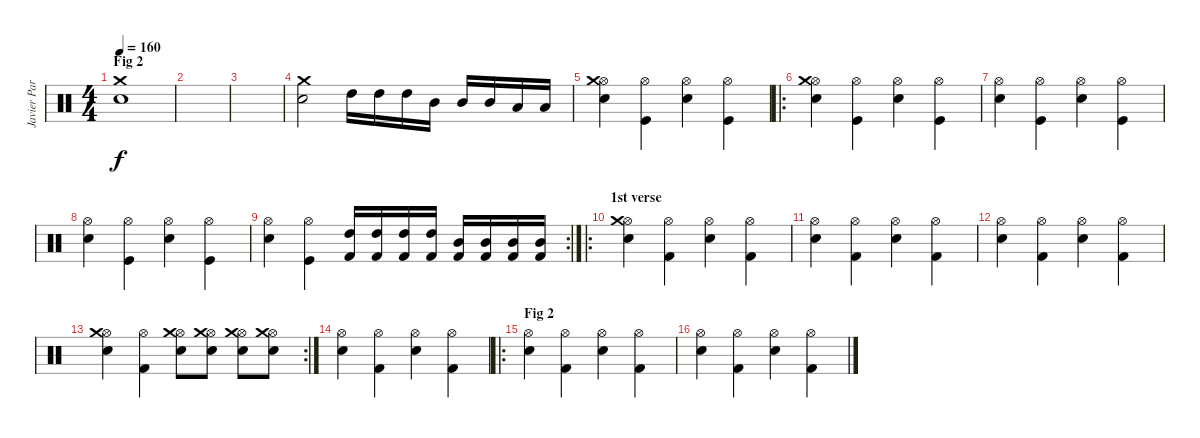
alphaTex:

\track ("Javier Partida" "Javier Par") {instrument percussion}
\staff {score}
\articulation defaults
\ts (4 4)
\section ("" "Fig 2")
\tempo 160
\clef neutral
\ks c
("Crash medium (hit)" "Snare (hit) 2").1{dy f} |
|
|
("Crash medium (hit)" "Snare (hit) 2").2 "High Tom (hit)".16 "High Tom (hit)".16 "High Tom (hit)".16 "Mid Tom (hit)".16 "Mid Tom (hit)".16 "Mid Tom (hit)".16 "Low Tom (hit)".16 "Low Tom (hit)".16 |
("Hi-Hat (open)" "Snare (hit) 2" "Crash medium (hit)").4 ("Hi-Hat (open)" "Kick (hit)").4 ("Hi-Hat (open)" "Snare (hit) 2").4 ("Hi-Hat (open)" "Kick (hit)").4 |
\ro
("Hi-Hat (open)" "Snare (hit) 2" "Crash medium (hit)").4 ("Hi-Hat (open)" "Kick (hit)").4 ("Hi-Hat (open)" "Snare (hit) 2").4 ("Hi-Hat (open)" "Kick (hit)").4 |
("Hi-Hat (open)" "Snare (hit) 2").4 ("Hi-Hat (open)" "Kick (hit)").4 ("Hi-Hat (open)" "Snare (hit) 2").4 ("Hi-Hat (open)" "Kick (hit)").4 |
("Hi-Hat (open)" "Snare (hit) 2").4 ("Hi-Hat (open)" "Kick (hit)").4 ("Hi-Hat (open)" "Snare (hit) 2").4 ("Hi-Hat (open)" "Kick (hit)").4 |
\rc 2
("Hi-Hat (open)" "Snare (hit) 2").4 ("Hi-Hat (open)" "Kick (hit)").4 ("Kick (hit) 2" "High Tom (hit)").16 ("Kick (hit) 2" "High Tom (hit)").16 ("Kick (hit) 2" "High Tom (hit)").16 ("Kick (hit) 2" "High Tom (hit)").16 ("Kick (hit) 2" "Mid Tom (hit)").16 ("Kick (hit) 2" "Mid Tom (hit)").16 ("Kick (hit) 2" "Mid Tom (hit)").16 ("Kick (hit) 2" "Mid Tom (hit)").16 |
\ro
\section ("" "1st verse")
("Hi-Hat (open)" "Snare (hit) 2" "Crash medium (hit)").4 ("Hi-Hat (open)" "Kick (hit) 2").4 ("Hi-Hat (open)" "Snare (hit) 2").4 ("Hi-Hat (open)" "Kick (hit) 2").4 |
("Hi-Hat (open)" "Snare (hit) 2").4 ("Hi-Hat (open)" "Kick (hit) 2").4 ("Hi-Hat (open)" "Snare (hit) 2").4 ("Hi-Hat (open)" "Kick (hit) 2").4 |
("Hi-Hat (open)" "Snare (hit) 2").4 ("Hi-Hat (open)" "Kick (hit) 2").4 ("Hi-Hat (open)" "Snare (hit) 2").4 ("Hi-Hat (open)" "Kick (hit) 2").4 |
\rc 2
("Hi-Hat (open)" "Snare (hit) 2" "Crash medium (hit)").4 ("Hi-Hat (open)" "Kick (hit) 2").4 ("Hi-Hat (open)" "Snare (hit) 2" "Crash medium (hit)").8 ("Hi-Hat (open)" "Snare (hit) 2" "Crash medium (hit)").8 ("Hi-Hat (open)" "Snare (hit) 2" "Crash medium (hit)").8 ("Hi-Hat (open)" "Snare (hit) 2" "Crash medium (hit)").8 |
("Hi-Hat (open)" "Snare (hit) 2").4 ("Hi-Hat (open)" "Kick (hit) 2").4 ("Hi-Hat (open)" "Snare (hit) 2").4 ("Hi-Hat (open)" "Kick (hit) 2").4 |
\ro
\section ("" "Fig 2")
("Hi-Hat (open)" "Snare (hit) 2").4 ("Hi-Hat (open)" "Kick (hit) 2").4 ("Hi-Hat (open)" "Snare (hit) 2").4 ("Hi-Hat (open)" "Kick (hit) 2").4 |
("Hi-Hat (open)" "Snare (hit) 2").4 ("Hi-Hat (open)" "Kick (hit) 2").4 ("Hi-Hat (open)" "Snare (hit) 2").4 ("Hi-Hat (open)" "Kick (hit) 2").4
